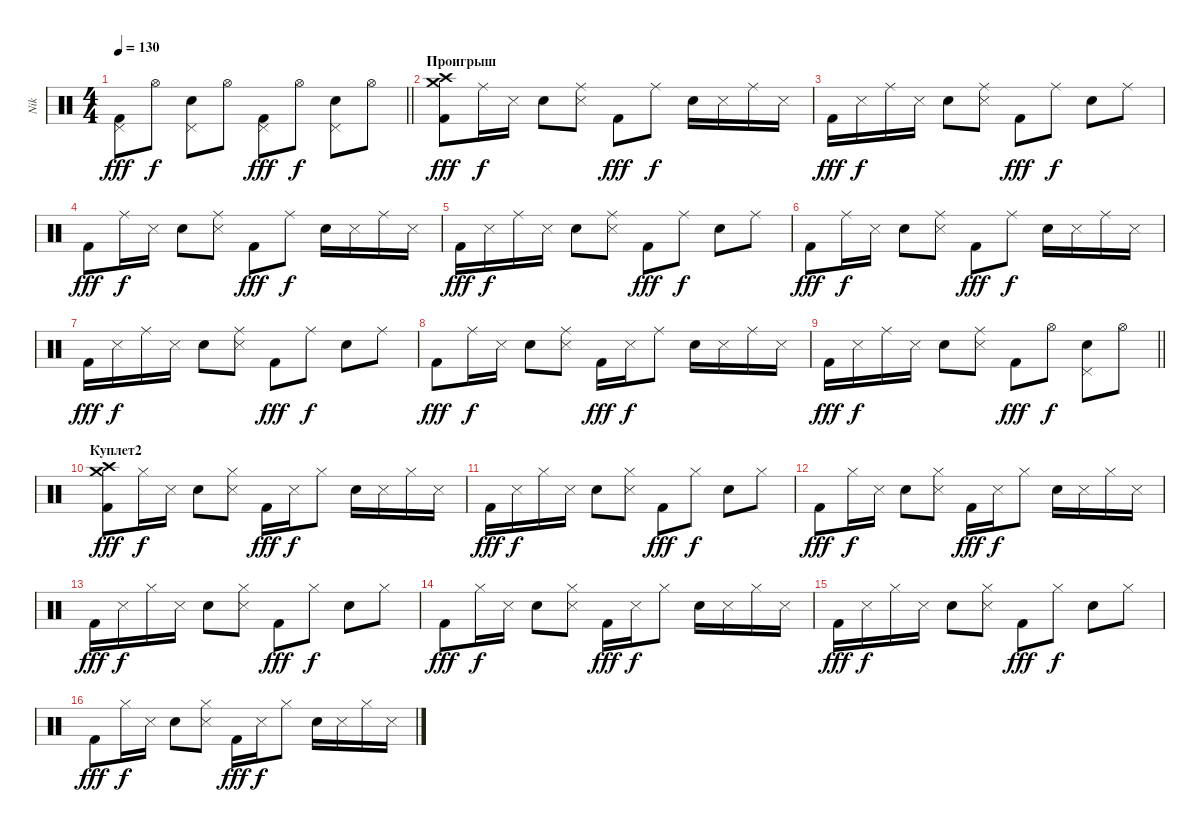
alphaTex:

\track ("Nik" "Nik") {instrument percussion}
\staff {score}
\articulation defaults
\ts (4 4)
\tempo 130
\clef neutral
\barLineRight lightlight
\ks c
("Pedal Hi-Hat (hit)" "Kick (hit) 2").8{dy fff} "Hi-Hat (open)".8{dy f} ("Pedal Hi-Hat (hit)" "Electric Snare (hit)").8 "Hi-Hat (open)".8 ("Pedal Hi-Hat (hit)" "Kick (hit) 2").8{dy fff} "Hi-Hat (open)".8{dy f} ("Pedal Hi-Hat (hit)" "Electric Snare (hit)").8 "Hi-Hat (open)".8 |
\section ("" "Проигрыш")
("Crash high (hit)" "Crash medium (hit)" "Kick (hit) 2").8{dy fff} "Ride (middle)".16{dy f} "Snare (side stick) 3".16 "Electric Snare (hit)".8 ("Ride (middle)" "Snare (side stick) 3").8 "Kick (hit) 2".8{dy fff} "Ride (middle)".8{dy f} "Electric Snare (hit)".16 "Snare (side stick) 3".16 "Ride (middle)".16 "Snare (side stick) 3".16 |
"Kick (hit) 2".16{dy fff} "Snare (side stick) 3".16{dy f} "Ride (middle)".16 "Snare (side stick) 3".16 "Electric Snare (hit)".8 ("Ride (middle)" "Snare (side stick) 3").8 "Kick (hit) 2".8{dy fff} "Ride (middle)".8{dy f} "Electric Snare (hit)".8 "Ride (middle)".8 |
"Kick (hit) 2".8{dy fff} "Ride (middle)".16{dy f} "Snare (side stick) 3".16 "Electric Snare (hit)".8 ("Ride (middle)" "Snare (side stick) 3").8 "Kick (hit) 2".8{dy fff} "Ride (middle)".8{dy f} "Electric Snare (hit)".16 "Snare (side stick) 3".16 "Ride (middle)".16 "Snare (side stick) 3".16 |
"Kick (hit) 2".16{dy fff} "Snare (side stick) 3".16{dy f} "Ride (middle)".16 "Snare (side stick) 3".16 "Electric Snare (hit)".8 ("Ride (middle)" "Snare (side stick) 3").8 "Kick (hit) 2".8{dy fff} "Ride (middle)".8{dy f} "Electric Snare (hit)".8 "Ride (middle)".8 |
"Kick (hit) 2".8{dy fff} "Ride (middle)".16{dy f} "Snare (side stick) 3".16 "Electric Snare (hit)".8 ("Ride (middle)" "Snare (side stick) 3").8 "Kick (hit) 2".8{dy fff} "Ride (middle)".8{dy f} "Electric Snare (hit)".16 "Snare (side stick) 3".16 "Ride (middle)".16 "Snare (side stick) 3".16 |
"Kick (hit) 2".16{dy fff} "Snare (side stick) 3".16{dy f} "Ride (middle)".16 "Snare (side stick) 3".16 "Electric Snare (hit)".8 ("Ride (middle)" "Snare (side stick) 3").8 "Kick (hit) 2".8{dy fff} "Ride (middle)".8{dy f} "Electric Snare (hit)".8 "Ride (middle)".8 |
"Kick (hit) 2".8{dy fff} "Ride (middle)".16{dy f} "Snare (side stick) 3".16 "Electric Snare (hit)".8 ("Ride (middle)" "Snare (side stick) 3").8 "Kick (hit) 2".16{dy fff} "Snare (side stick) 3".16{dy f} "Ride (middle)".8 "Electric Snare (hit)".16 "Snare (side stick) 3".16 "Ride (middle)".16 "Snare (side stick) 3".16 |
\barLineRight lightlight "Kick (hit) 2".16{dy fff} "Snare (side stick) 3".16{dy f} "Ride (middle)".16 "Snare (side stick) 3".16 "Electric Snare (hit)".8
("Ride (middle)" "Snare (side stick) 3").8 "Kick (hit) 2".8{dy fff} "Hi-Hat (open)".8{dy f} ("Pedal Hi-Hat (hit)" "Electric Snare (hit)").8 "Hi-Hat (open)".8 |
\section ("" "Куплет2")
("Crash high (hit)" "Crash medium (hit)" "Kick (hit) 2").8{dy fff} "Hi-Hat (closed)".16{dy f} "Snare (side stick) 3".16 "Electric Snare (hit)".8 ("Hi-Hat (closed)" "Snare (side stick) 3").8 "Kick (hit) 2".16{dy fff} "Snare (side stick) 3".16{dy f} "Hi-Hat (closed)".8 "Electric Snare (hit)".16 "Snare (side stick) 3".16 "Hi-Hat (closed)".16 "Snare (side stick) 3".16 |
"Kick (hit) 2".16{dy fff} "Snare (side stick) 3".16{dy f} "Hi-Hat (closed)".16 "Snare (side stick) 3".16 "Electric Snare (hit)".8 ("Hi-Hat (closed)" "Snare (side stick) 3").8 "Kick (hit) 2".8{dy fff} "Hi-Hat (closed)".8{dy f} "Electric Snare (hit)".8 "Hi-Hat (closed)".8 |
"Kick (hit) 2".8{dy fff} "Hi-Hat (closed)".16{dy f} "Snare (side stick) 3".16 "Electric Snare (hit)".8 ("Hi-Hat (closed)" "Snare (side stick) 3").8 "Kick (hit) 2".16{dy fff} "Snare (side stick) 3".16{dy f} "Hi-Hat (closed)".8 "Electric Snare (hit)".16 "Snare (side stick) 3".16 "Hi-Hat (closed)".16 "Snare (side stick) 3".16 |
"Kick (hit) 2".16{dy fff} "Snare (side stick) 3".16{dy f} "Hi-Hat (closed)".16 "Snare (side stick) 3".16 "Electric Snare (hit)".8 ("Hi-Hat (closed)" "Snare (side stick) 3").8 "Kick (hit) 2".8{dy fff} "Hi-Hat (closed)".8{dy f} "Electric Snare (hit)".8 "Hi-Hat (closed)".8 |
"Kick (hit) 2".8{dy fff} "Hi-Hat (closed)".16{dy f} "Snare (side stick) 3".16 "Electric Snare (hit)".8 ("Hi-Hat (closed)" "Snare (side stick) 3").8 "Kick (hit) 2".16{dy fff} "Snare (side stick) 3".16{dy f} "Hi-Hat (closed)".8 "Electric Snare (hit)".16 "Snare (side stick) 3".16 "Hi-Hat (closed)".16 "Snare (side stick) 3".16 |
"Kick (hit) 2".16{dy fff} "Snare (side stick) 3".16{dy f} "Hi-Hat (closed)".16 "Snare (side stick) 3".16 "Electric Snare (hit)".8 ("Hi-Hat (closed)" "Snare (side stick) 3").8 "Kick (hit) 2".8{dy fff} "Hi-Hat (closed)".8{dy f} "Electric Snare (hit)".8 "Hi-Hat (closed)".8 |
"Kick (hit) 2".8{dy fff} "Hi-Hat (closed)".16{dy f} "Snare (side stick) 3".16 "Electric Snare (hit)".8 ("Hi-Hat (closed)" "Snare (side stick) 3").8 "Kick (hit) 2".16{dy fff} "Snare (side stick) 3".16{dy f} "Hi-Hat (closed)".8 "Electric Snare (hit)".16 "Snare (side stick) 3".16 "Hi-Hat (closed)".16 "Snare (side stick) 3".16
